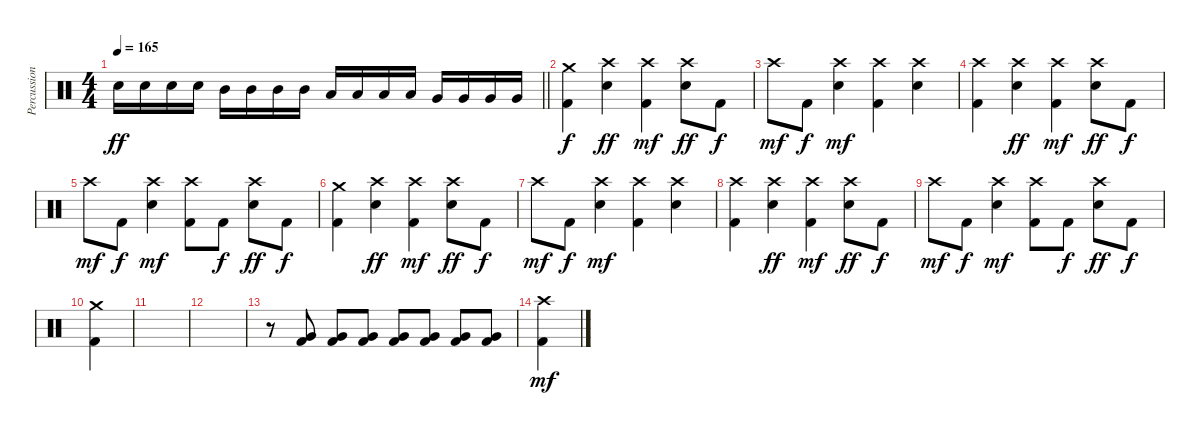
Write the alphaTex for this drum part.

\track ("Percussions" "Percussion") {instrument percussion}
\staff {score}
\articulation defaults
\ts (4 4)
\tempo 165
\clef neutral
\barLineRight lightlight
\ks c "Electric Snare (hit)".16{dy ff} "Electric Snare (hit)".16 "Electric Snare (hit)".16 "Electric Snare (hit)".16 "Mid Tom (hit)".16 "Mid Tom (hit)".16 "Mid Tom (hit)".16 "Mid Tom (hit)".16 "Low Tom (hit)".16 "Low Tom (hit)".16 "Low Tom (hit)".16 "Low Tom (hit)".16 "Very Low Tom (hit)".16 "Very Low Tom (hit)".16 "Very Low Tom (hit)".16 "Very Low Tom (hit)".16
|
("Crash medium (hit)" "Kick (hit) 2").4{dy f} ("Crash high (hit)" "Electric Snare (hit)").4{dy ff} ("Crash high (hit)" "Kick (hit) 2").4{dy mf} ("Crash high (hit)" "Electric Snare (hit)").8{dy ff} "Kick (hit) 2".8{dy f} |
"Crash high (hit)".8{dy mf} "Kick (hit) 2".8{dy f} ("Crash high (hit)" "Electric Snare (hit)").4{dy mf} ("Crash high (hit)" "Kick (hit) 2").4 ("Crash high (hit)" "Electric Snare (hit)").4 |
("Crash high (hit)" "Kick (hit) 2").4 ("Crash high (hit)" "Electric Snare (hit)").4{dy ff} ("Crash high (hit)" "Kick (hit) 2").4{dy mf} ("Crash high (hit)" "Electric Snare (hit)").8{dy ff} "Kick (hit) 2".8{dy f} |
"Crash high (hit)".8{dy mf} "Kick (hit) 2".8{dy f} ("Crash high (hit)" "Electric Snare (hit)").4{dy mf} ("Crash high (hit)" "Kick (hit) 2").8 "Kick (hit) 2".8{dy f} ("Crash high (hit)" "Electric Snare (hit)").8{dy ff} "Kick (hit) 2".8{dy f} |
("Crash medium (hit)" "Kick (hit) 2").4 ("Crash high (hit)" "Electric Snare (hit)").4{dy ff} ("Crash high (hit)" "Kick (hit) 2").4{dy mf} ("Crash high (hit)" "Electric Snare (hit)").8{dy ff} "Kick (hit) 2".8{dy f} |
"Crash high (hit)".8{dy mf} "Kick (hit) 2".8{dy f} ("Crash high (hit)" "Electric Snare (hit)").4{dy mf} ("Crash high (hit)" "Kick (hit) 2").4 ("Crash high (hit)" "Electric Snare (hit)").4 |
("Crash high (hit)" "Kick (hit) 2").4 ("Crash high (hit)" "Electric Snare (hit)").4{dy ff} ("Crash high (hit)" "Kick (hit) 2").4{dy mf} ("Crash high (hit)" "Electric Snare (hit)").8{dy ff} "Kick (hit) 2".8{dy f} |
"Crash high (hit)".8{dy mf} "Kick (hit) 2".8{dy f} ("Crash high (hit)" "Electric Snare (hit)").4{dy mf} ("Crash high (hit)" "Kick (hit) 2").8 "Kick (hit) 2".8{dy f} ("Crash high (hit)" "Electric Snare (hit)").8{dy ff} "Kick (hit) 2".8{dy f} |
("Crash medium (hit)" "Kick (hit) 2").4 |
|
|
r.8 ("Very Low Tom (hit)" "Kick (hit) 2").8 ("Very Low Tom (hit)" "Kick (hit) 2").8 ("Very Low Tom (hit)" "Kick (hit) 2").8 ("Very Low Tom (hit)" "Kick (hit) 2").8 ("Very Low Tom (hit)" "Kick (hit) 2").8 ("Very Low Tom (hit)" "Kick (hit) 2").8 ("Very Low Tom (hit)" "Kick (hit) 2").8 |
("Crash high (hit)" "Kick (hit) 2").4{dy mf}
